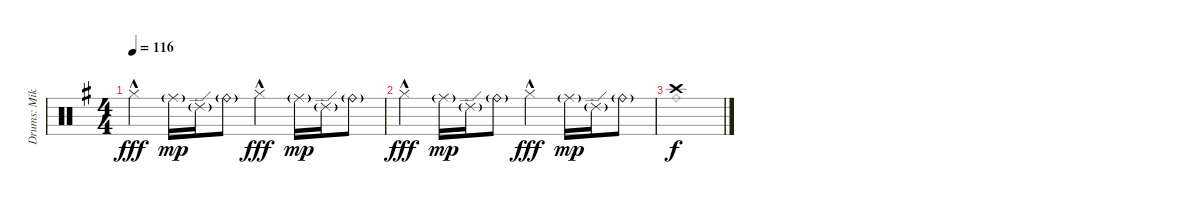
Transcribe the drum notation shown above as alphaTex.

\track ("Drums: Mike" "Drums: Mik") {instrument percussion}
\staff {score}
\articulation defaults
\voice
\ts (4 4)
\tempo 116
\clef neutral
\ks g "Hi-Hat (closed)"{hac}.4{dy fff} "Ride (middle)"{g}.16{dy mp} "Ride (edge) 2"{g}.16 "Ride (bell)"{g}.8 "Hi-Hat (closed)"{hac}.4{dy fff} "Ride (middle)"{g}.16{dy mp} "Ride (edge) 2"{g}.16 "Ride (bell)"{g}.8
|
"Hi-Hat (closed)"{hac}.4{dy fff} "Ride (middle)"{g}.16{dy mp} "Ride (edge) 2"{g}.16 "Ride (bell)"{g}.8 "Hi-Hat (closed)"{hac}.4{dy fff} "Ride (middle)"{g}.16{dy mp} "Ride (edge) 2"{g}.16 "Ride (bell)"{g}.8 |
"Crash high (hit)".1{dy f} |
|
|
|
|
\voice
\clef neutral
\ottava regular
\simile none
\ks g
|
|
"Ride (bell)".1 |
|
|
|
|
